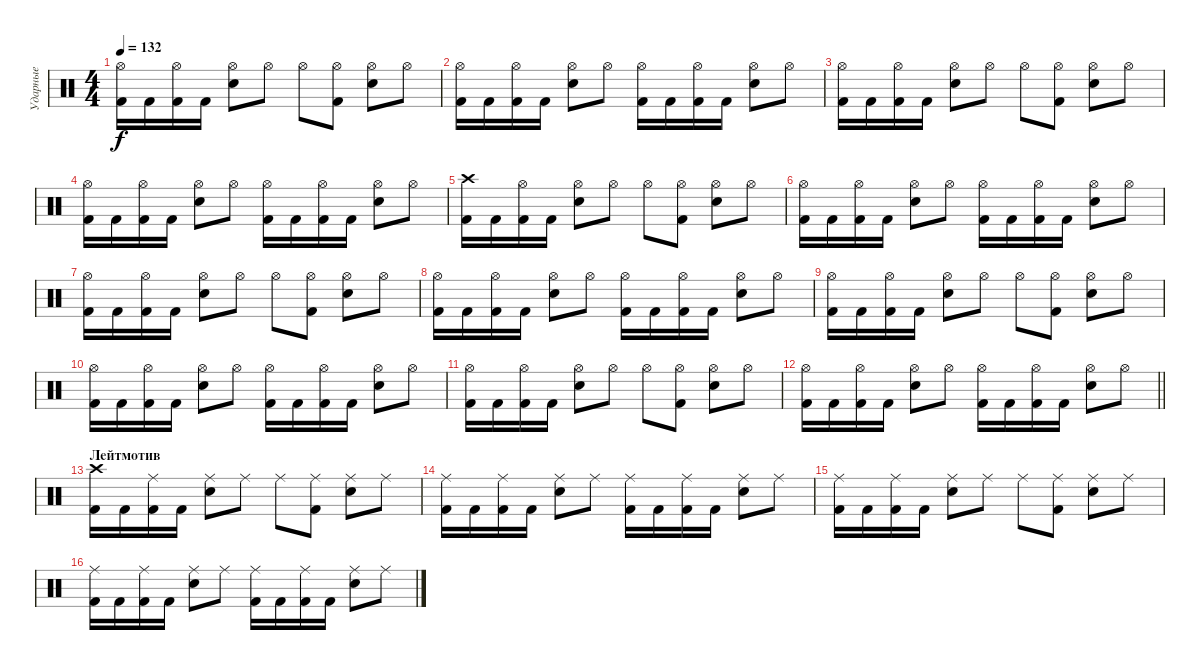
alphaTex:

\track ("Ударные" "Ударные") {instrument percussion}
\staff {score}
\articulation defaults
\ts (4 4)
\tempo 132
\clef neutral
\ks c
("Hi-Hat (open)" "Kick (hit) 2").16{dy f} "Kick (hit) 2".16 ("Hi-Hat (open)" "Kick (hit) 2").16 "Kick (hit) 2".16 ("Hi-Hat (open)" "Snare (hit) 2").8 "Hi-Hat (open)".8 "Hi-Hat (open)".8 ("Hi-Hat (open)" "Kick (hit) 2").8 ("Hi-Hat (open)" "Snare (hit) 2").8 "Hi-Hat (open)".8 |
("Hi-Hat (open)" "Kick (hit) 2").16 "Kick (hit) 2".16 ("Hi-Hat (open)" "Kick (hit) 2").16 "Kick (hit) 2".16 ("Hi-Hat (open)" "Snare (hit) 2").8 "Hi-Hat (open)".8 ("Hi-Hat (open)" "Kick (hit) 2").16 "Kick (hit) 2".16 ("Hi-Hat (open)" "Kick (hit) 2").16 "Kick (hit) 2".16 ("Hi-Hat (open)" "Snare (hit) 2").8 "Hi-Hat (open)".8 |
("Hi-Hat (open)" "Kick (hit) 2").16 "Kick (hit) 2".16 ("Hi-Hat (open)" "Kick (hit) 2").16 "Kick (hit) 2".16 ("Hi-Hat (open)" "Snare (hit) 2").8 "Hi-Hat (open)".8 "Hi-Hat (open)".8 ("Hi-Hat (open)" "Kick (hit) 2").8 ("Hi-Hat (open)" "Snare (hit) 2").8 "Hi-Hat (open)".8 |
("Hi-Hat (open)" "Kick (hit) 2").16 "Kick (hit) 2".16 ("Hi-Hat (open)" "Kick (hit) 2").16 "Kick (hit) 2".16 ("Hi-Hat (open)" "Snare (hit) 2").8 "Hi-Hat (open)".8 ("Hi-Hat (open)" "Kick (hit) 2").16 "Kick (hit) 2".16 ("Hi-Hat (open)" "Kick (hit) 2").16 "Kick (hit) 2".16 ("Hi-Hat (open)" "Snare (hit) 2").8 "Hi-Hat (open)".8 |
("Crash high (hit)" "Kick (hit) 2").16 "Kick (hit) 2".16 ("Hi-Hat (open)" "Kick (hit) 2").16 "Kick (hit) 2".16 ("Hi-Hat (open)" "Snare (hit) 2").8 "Hi-Hat (open)".8 "Hi-Hat (open)".8 ("Hi-Hat (open)" "Kick (hit) 2").8 ("Hi-Hat (open)" "Snare (hit) 2").8 "Hi-Hat (open)".8 |
("Hi-Hat (open)" "Kick (hit) 2").16 "Kick (hit) 2".16 ("Hi-Hat (open)" "Kick (hit) 2").16 "Kick (hit) 2".16 ("Hi-Hat (open)" "Snare (hit) 2").8 "Hi-Hat (open)".8 ("Hi-Hat (open)" "Kick (hit) 2").16 "Kick (hit) 2".16 ("Hi-Hat (open)" "Kick (hit) 2").16 "Kick (hit) 2".16 ("Hi-Hat (open)" "Snare (hit) 2").8 "Hi-Hat (open)".8 |
("Hi-Hat (open)" "Kick (hit) 2").16 "Kick (hit) 2".16 ("Hi-Hat (open)" "Kick (hit) 2").16 "Kick (hit) 2".16 ("Hi-Hat (open)" "Snare (hit) 2").8 "Hi-Hat (open)".8 "Hi-Hat (open)".8 ("Hi-Hat (open)" "Kick (hit) 2").8 ("Hi-Hat (open)" "Snare (hit) 2").8 "Hi-Hat (open)".8 |
("Hi-Hat (open)" "Kick (hit) 2").16 "Kick (hit) 2".16 ("Hi-Hat (open)" "Kick (hit) 2").16 "Kick (hit) 2".16 ("Hi-Hat (open)" "Snare (hit) 2").8 "Hi-Hat (open)".8 ("Hi-Hat (open)" "Kick (hit) 2").16 "Kick (hit) 2".16 ("Hi-Hat (open)" "Kick (hit) 2").16 "Kick (hit) 2".16 ("Hi-Hat (open)" "Snare (hit) 2").8 "Hi-Hat (open)".8 |
("Hi-Hat (open)" "Kick (hit) 2").16 "Kick (hit) 2".16 ("Hi-Hat (open)" "Kick (hit) 2").16 "Kick (hit) 2".16 ("Hi-Hat (open)" "Snare (hit) 2").8 "Hi-Hat (open)".8 "Hi-Hat (open)".8 ("Hi-Hat (open)" "Kick (hit) 2").8 ("Hi-Hat (open)" "Snare (hit) 2").8 "Hi-Hat (open)".8 |
("Hi-Hat (open)" "Kick (hit) 2").16 "Kick (hit) 2".16 ("Hi-Hat (open)" "Kick (hit) 2").16 "Kick (hit) 2".16 ("Hi-Hat (open)" "Snare (hit) 2").8 "Hi-Hat (open)".8 ("Hi-Hat (open)" "Kick (hit) 2").16 "Kick (hit) 2".16 ("Hi-Hat (open)" "Kick (hit) 2").16 "Kick (hit) 2".16 ("Hi-Hat (open)" "Snare (hit) 2").8 "Hi-Hat (open)".8 |
("Hi-Hat (open)" "Kick (hit) 2").16 "Kick (hit) 2".16 ("Hi-Hat (open)" "Kick (hit) 2").16 "Kick (hit) 2".16 ("Hi-Hat (open)" "Snare (hit) 2").8 "Hi-Hat (open)".8 "Hi-Hat (open)".8 ("Hi-Hat (open)" "Kick (hit) 2").8 ("Hi-Hat (open)" "Snare (hit) 2").8 "Hi-Hat (open)".8 |
\barLineRight lightlight
("Hi-Hat (open)" "Kick (hit) 2").16 "Kick (hit) 2".16 ("Hi-Hat (open)" "Kick (hit) 2").16 "Kick (hit) 2".16 ("Hi-Hat (open)" "Snare (hit) 2").8 "Hi-Hat (open)".8 ("Hi-Hat (open)" "Kick (hit) 2").16 "Kick (hit) 2".16 ("Hi-Hat (open)" "Kick (hit) 2").16 "Kick (hit) 2".16 ("Hi-Hat (open)" "Snare (hit) 2").8 "Hi-Hat (open)".8 |
\section ("" "Лейтмотив")
("Crash high (hit)" "Kick (hit) 2").16 "Kick (hit) 2".16 ("Ride (middle)" "Kick (hit) 2").16 "Kick (hit) 2".16 ("Ride (middle)" "Snare (hit) 2").8 "Ride (middle)".8 "Ride (middle)".8 ("Ride (middle)" "Kick (hit) 2").8 ("Ride (middle)" "Snare (hit) 2").8 "Ride (middle)".8 |
("Ride (middle)" "Kick (hit) 2").16 "Kick (hit) 2".16 ("Ride (middle)" "Kick (hit) 2").16 "Kick (hit) 2".16 ("Ride (middle)" "Snare (hit) 2").8 "Ride (middle)".8 ("Ride (middle)" "Kick (hit) 2").16 "Kick (hit) 2".16 ("Ride (middle)" "Kick (hit) 2").16 "Kick (hit) 2".16 ("Ride (middle)" "Snare (hit) 2").8 "Ride (middle)".8 |
("Ride (middle)" "Kick (hit) 2").16 "Kick (hit) 2".16 ("Ride (middle)" "Kick (hit) 2").16 "Kick (hit) 2".16 ("Ride (middle)" "Snare (hit) 2").8 "Ride (middle)".8 "Ride (middle)".8 ("Ride (middle)" "Kick (hit) 2").8 ("Ride (middle)" "Snare (hit) 2").8 "Ride (middle)".8 |
("Ride (middle)" "Kick (hit) 2").16 "Kick (hit) 2".16 ("Ride (middle)" "Kick (hit) 2").16 "Kick (hit) 2".16 ("Ride (middle)" "Snare (hit) 2").8 "Ride (middle)".8 ("Ride (middle)" "Kick (hit) 2").16 "Kick (hit) 2".16 ("Ride (middle)" "Kick (hit) 2").16 "Kick (hit) 2".16 ("Ride (middle)" "Snare (hit) 2").8 "Ride (middle)".8
